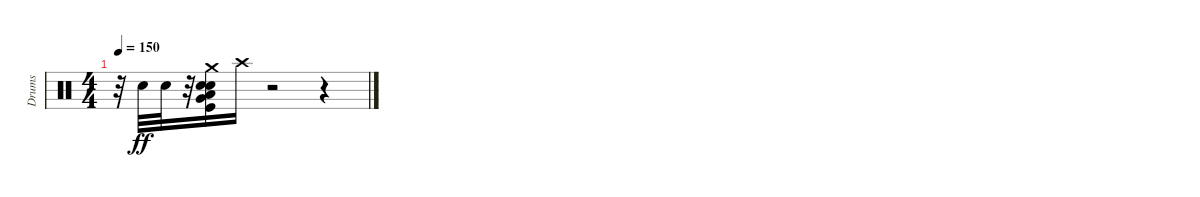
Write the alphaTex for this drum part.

\track ("Drums" "Drums") {instrument percussion}
\staff {score}
\articulation defaults
\ts (4 4)
\tempo 150
\clef neutral
\ks c
r.32{dy ff} "Electric Snare (hit)".32 "Electric Snare (hit)".32 r.32 ("Kick (hit)" "Snare (hit) 2" "Electric Snare (hit)" "Very Low Tom (hit)" "Low Floor Tom (hit)" "Crash medium (hit)").16 "Crash high (hit)".16 r.2 r.4
